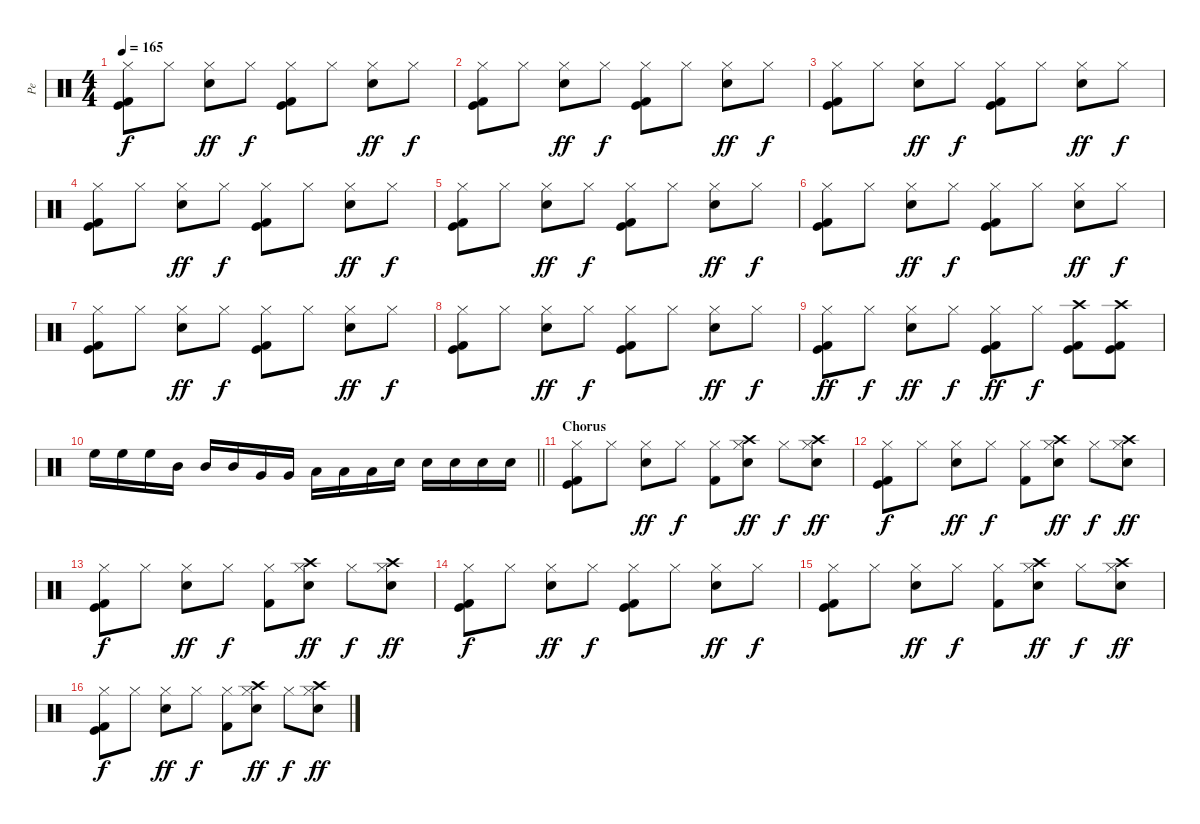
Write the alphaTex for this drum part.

\track ("Pe" "Pe") {instrument percussion}
\staff {score}
\articulation defaults
\ts (4 4)
\tempo 165
\clef neutral
\ks c
("Kick (hit)" "Hi-Hat (closed)" "Kick (hit) 2").8{dy f} "Hi-Hat (closed)".8 ("Electric Snare (hit)" "Hi-Hat (closed)").8{dy ff} "Hi-Hat (closed)".8{dy f} ("Kick (hit)" "Hi-Hat (closed)" "Kick (hit) 2").8 "Hi-Hat (closed)".8 ("Electric Snare (hit)" "Hi-Hat (closed)").8{dy ff} "Hi-Hat (closed)".8{dy f} |
("Kick (hit)" "Hi-Hat (closed)" "Kick (hit) 2").8 "Hi-Hat (closed)".8 ("Electric Snare (hit)" "Hi-Hat (closed)").8{dy ff} "Hi-Hat (closed)".8{dy f} ("Kick (hit)" "Hi-Hat (closed)" "Kick (hit) 2").8 "Hi-Hat (closed)".8 ("Electric Snare (hit)" "Hi-Hat (closed)").8{dy ff} "Hi-Hat (closed)".8{dy f} |
("Kick (hit)" "Hi-Hat (closed)" "Kick (hit) 2").8 "Hi-Hat (closed)".8 ("Electric Snare (hit)" "Hi-Hat (closed)").8{dy ff} "Hi-Hat (closed)".8{dy f} ("Kick (hit)" "Hi-Hat (closed)" "Kick (hit) 2").8 "Hi-Hat (closed)".8 ("Electric Snare (hit)" "Hi-Hat (closed)").8{dy ff} "Hi-Hat (closed)".8{dy f} |
("Kick (hit)" "Hi-Hat (closed)" "Kick (hit) 2").8 "Hi-Hat (closed)".8 ("Electric Snare (hit)" "Hi-Hat (closed)").8{dy ff} "Hi-Hat (closed)".8{dy f} ("Kick (hit)" "Hi-Hat (closed)" "Kick (hit) 2").8 "Hi-Hat (closed)".8 ("Electric Snare (hit)" "Hi-Hat (closed)").8{dy ff} "Hi-Hat (closed)".8{dy f} |
("Kick (hit)" "Hi-Hat (closed)" "Kick (hit) 2").8 "Hi-Hat (closed)".8 ("Electric Snare (hit)" "Hi-Hat (closed)").8{dy ff} "Hi-Hat (closed)".8{dy f} ("Kick (hit)" "Hi-Hat (closed)" "Kick (hit) 2").8 "Hi-Hat (closed)".8 ("Electric Snare (hit)" "Hi-Hat (closed)").8{dy ff} "Hi-Hat (closed)".8{dy f} |
("Kick (hit)" "Hi-Hat (closed)" "Kick (hit) 2").8 "Hi-Hat (closed)".8 ("Electric Snare (hit)" "Hi-Hat (closed)").8{dy ff} "Hi-Hat (closed)".8{dy f} ("Kick (hit)" "Hi-Hat (closed)" "Kick (hit) 2").8 "Hi-Hat (closed)".8 ("Electric Snare (hit)" "Hi-Hat (closed)").8{dy ff} "Hi-Hat (closed)".8{dy f} |
("Kick (hit)" "Hi-Hat (closed)" "Kick (hit) 2").8 "Hi-Hat (closed)".8 ("Electric Snare (hit)" "Hi-Hat (closed)").8{dy ff} "Hi-Hat (closed)".8{dy f} ("Kick (hit)" "Hi-Hat (closed)" "Kick (hit) 2").8 "Hi-Hat (closed)".8 ("Electric Snare (hit)" "Hi-Hat (closed)").8{dy ff} "Hi-Hat (closed)".8{dy f} |
("Kick (hit)" "Hi-Hat (closed)" "Kick (hit) 2").8 "Hi-Hat (closed)".8 ("Electric Snare (hit)" "Hi-Hat (closed)").8{dy ff} "Hi-Hat (closed)".8{dy f} ("Kick (hit)" "Hi-Hat (closed)" "Kick (hit) 2").8 "Hi-Hat (closed)".8 ("Electric Snare (hit)" "Hi-Hat (closed)").8{dy ff} "Hi-Hat (closed)".8{dy f} |
("Kick (hit)" "Hi-Hat (closed)" "Kick (hit) 2").8{dy ff} "Hi-Hat (closed)".8{dy f} ("Electric Snare (hit)" "Hi-Hat (closed)").8{dy ff} "Hi-Hat (closed)".8{dy f} ("Kick (hit)" "Hi-Hat (closed)" "Kick (hit) 2").8{dy ff} "Hi-Hat (closed)".8{dy f} ("Crash high (hit)" "Kick (hit)" "Kick (hit) 2").8 ("Crash high (hit)" "Kick (hit)" "Kick (hit) 2").8 |
\barLineRight lightlight "High Floor Tom (hit)".16 "High Floor Tom (hit)".16 "High Floor Tom (hit)".16 "Mid Tom (hit)".16 "Mid Tom (hit)".16 "Mid Tom (hit)".16 "Very Low Tom (hit)".16 "Very Low Tom (hit)".16 "Low Floor Tom (hit)".16 "Low Floor Tom (hit)".16 "Low Floor Tom (hit)".16 "Electric Snare (hit)".16 "Electric Snare (hit)".16 "Electric Snare (hit)".16 "Electric Snare (hit)".16 "Electric Snare (hit)".16
|
\section ("" "Chorus")
("Kick (hit)" "Hi-Hat (closed)" "Kick (hit) 2").8 "Hi-Hat (closed)".8 ("Electric Snare (hit)" "Hi-Hat (closed)").8{dy ff} "Hi-Hat (closed)".8{dy f} ("Hi-Hat (closed)" "Kick (hit) 2").8 ("Crash high (hit)" "Electric Snare (hit)" "Hi-Hat (closed)").8{dy ff} "Hi-Hat (closed)".8{dy f} ("Crash high (hit)" "Electric Snare (hit)" "Hi-Hat (closed)").8{dy ff} |
("Kick (hit)" "Hi-Hat (closed)" "Kick (hit) 2").8{dy f} "Hi-Hat (closed)".8 ("Electric Snare (hit)" "Hi-Hat (closed)").8{dy ff} "Hi-Hat (closed)".8{dy f} ("Hi-Hat (closed)" "Kick (hit) 2").8 ("Crash high (hit)" "Electric Snare (hit)" "Hi-Hat (closed)").8{dy ff} "Hi-Hat (closed)".8{dy f} ("Crash high (hit)" "Electric Snare (hit)" "Hi-Hat (closed)").8{dy ff} |
("Kick (hit)" "Hi-Hat (closed)" "Kick (hit) 2").8{dy f} "Hi-Hat (closed)".8 ("Electric Snare (hit)" "Hi-Hat (closed)").8{dy ff} "Hi-Hat (closed)".8{dy f} ("Hi-Hat (closed)" "Kick (hit) 2").8 ("Crash high (hit)" "Electric Snare (hit)" "Hi-Hat (closed)").8{dy ff} "Hi-Hat (closed)".8{dy f} ("Crash high (hit)" "Electric Snare (hit)" "Hi-Hat (closed)").8{dy ff} |
("Kick (hit)" "Hi-Hat (closed)" "Kick (hit) 2").8{dy f} "Hi-Hat (closed)".8 ("Electric Snare (hit)" "Hi-Hat (closed)").8{dy ff} "Hi-Hat (closed)".8{dy f} ("Kick (hit)" "Hi-Hat (closed)" "Kick (hit) 2").8 "Hi-Hat (closed)".8 ("Electric Snare (hit)" "Hi-Hat (closed)").8{dy ff} "Hi-Hat (closed)".8{dy f} |
("Kick (hit)" "Hi-Hat (closed)" "Kick (hit) 2").8 "Hi-Hat (closed)".8 ("Electric Snare (hit)" "Hi-Hat (closed)").8{dy ff} "Hi-Hat (closed)".8{dy f} ("Hi-Hat (closed)" "Kick (hit) 2").8 ("Crash high (hit)" "Electric Snare (hit)" "Hi-Hat (closed)").8{dy ff} "Hi-Hat (closed)".8{dy f} ("Crash high (hit)" "Electric Snare (hit)" "Hi-Hat (closed)").8{dy ff} |
("Kick (hit)" "Hi-Hat (closed)" "Kick (hit) 2").8{dy f} "Hi-Hat (closed)".8 ("Electric Snare (hit)" "Hi-Hat (closed)").8{dy ff} "Hi-Hat (closed)".8{dy f} ("Hi-Hat (closed)" "Kick (hit) 2").8 ("Crash high (hit)" "Electric Snare (hit)" "Hi-Hat (closed)").8{dy ff} "Hi-Hat (closed)".8{dy f} ("Crash high (hit)" "Electric Snare (hit)" "Hi-Hat (closed)").8{dy ff}
